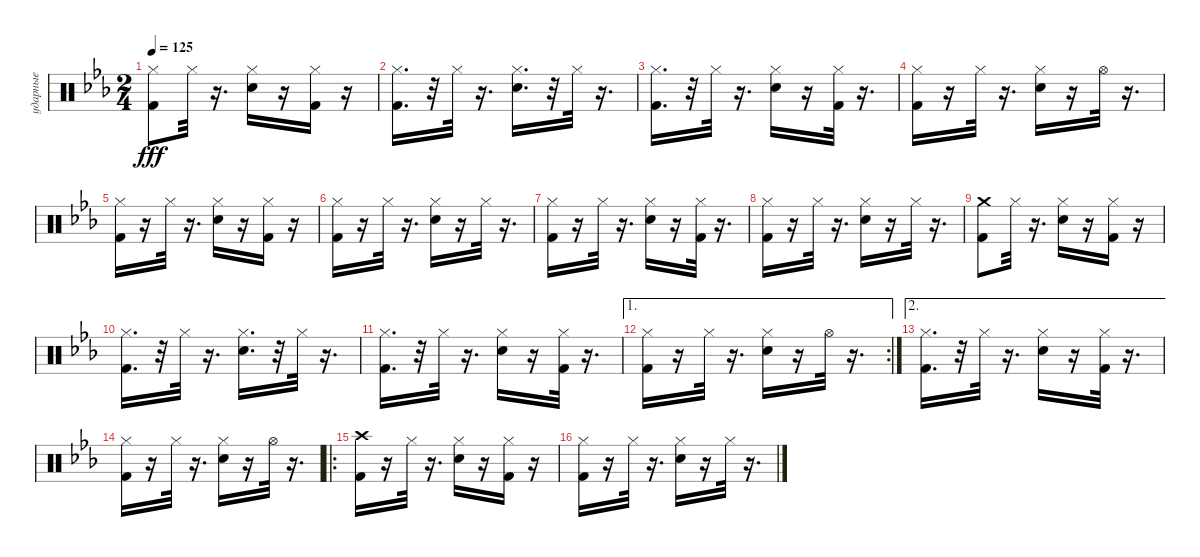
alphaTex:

\track ("ударные" "ударные") {instrument percussion}
\staff {score}
\articulation defaults
\ts (2 4)
\tempo 125
\clef neutral
\ks cminor
("Kick (hit) 2" "Hi-Hat (closed)").8{dy fff} "Hi-Hat (closed)".32 r.16{d} ("Snare (hit) 2" "Hi-Hat (closed)").16 r.16 ("Kick (hit) 2" "Hi-Hat (closed)").16 r.16 |
("Kick (hit) 2" "Hi-Hat (closed)").16{d} r.32 "Hi-Hat (closed)".32 r.16{d} ("Snare (hit) 2" "Hi-Hat (closed)").16{d} r.32 "Hi-Hat (closed)".32 r.16{d} |
("Kick (hit) 2" "Hi-Hat (closed)").16{d} r.32 "Hi-Hat (closed)".32 r.16{d} ("Snare (hit) 2" "Hi-Hat (closed)").16 r.16 ("Kick (hit) 2" "Hi-Hat (closed)").32 r.16{d} |
("Kick (hit) 2" "Hi-Hat (closed)").16 r.16 "Hi-Hat (closed)".32 r.16{d} ("Snare (hit) 2" "Hi-Hat (closed)").16 r.16 "Hi-Hat (open)".32 r.16{d} |
("Kick (hit) 2" "Hi-Hat (closed)").16 r.16 "Hi-Hat (closed)".32 r.16{d} ("Snare (hit) 2" "Hi-Hat (closed)").16 r.16 ("Kick (hit) 2" "Hi-Hat (closed)").16 r.16 |
("Kick (hit) 2" "Hi-Hat (closed)").16 r.16 "Hi-Hat (closed)".32 r.16{d} ("Snare (hit) 2" "Hi-Hat (closed)").16 r.16 "Hi-Hat (closed)".32 r.16{d} |
("Kick (hit) 2" "Hi-Hat (closed)").16 r.16 "Hi-Hat (closed)".32 r.16{d} ("Snare (hit) 2" "Hi-Hat (closed)").16 r.16 ("Kick (hit) 2" "Hi-Hat (closed)").32 r.16{d} |
("Kick (hit) 2" "Hi-Hat (closed)").16 r.16 "Hi-Hat (closed)".32 r.16{d} ("Snare (hit) 2" "Hi-Hat (closed)").16 r.16 "Hi-Hat (closed)".32 r.16{d} |
("Kick (hit) 2" "Crash medium (hit)").8 "Hi-Hat (closed)".32 r.16{d} ("Snare (hit) 2" "Hi-Hat (closed)").16 r.16 ("Kick (hit) 2" "Hi-Hat (closed)").16 r.16 |
("Kick (hit) 2" "Hi-Hat (closed)").16{d} r.32 "Hi-Hat (closed)".32 r.16{d} ("Snare (hit) 2" "Hi-Hat (closed)").16{d} r.32 "Hi-Hat (closed)".32 r.16{d} |
("Kick (hit) 2" "Hi-Hat (closed)").16{d} r.32 "Hi-Hat (closed)".32 r.16{d} ("Snare (hit) 2" "Hi-Hat (closed)").16 r.16 ("Kick (hit) 2" "Hi-Hat (closed)").32 r.16{d} |
\ae 1
\rc 2
("Kick (hit) 2" "Hi-Hat (closed)").16 r.16 "Hi-Hat (closed)".32 r.16{d} ("Snare (hit) 2" "Hi-Hat (closed)").16 r.16 "Hi-Hat (open)".32 r.16{d} |
\ae 2
("Kick (hit) 2" "Hi-Hat (closed)").16{d} r.32 "Hi-Hat (closed)".32 r.16{d} ("Snare (hit) 2" "Hi-Hat (closed)").16 r.16 ("Kick (hit) 2" "Hi-Hat (closed)").32 r.16{d} |
("Kick (hit) 2" "Hi-Hat (closed)").16 r.16 "Hi-Hat (closed)".32 r.16{d} ("Snare (hit) 2" "Hi-Hat (closed)").16 r.16 "Hi-Hat (open)".32 r.16{d} |
\ro
("Kick (hit) 2" "Crash high (hit)").16 r.16 "Hi-Hat (closed)".32 r.16{d} ("Snare (hit) 2" "Hi-Hat (closed)").16 r.16 ("Kick (hit) 2" "Hi-Hat (closed)").16 r.16 |
("Kick (hit) 2" "Hi-Hat (closed)").16 r.16 "Hi-Hat (closed)".32 r.16{d} ("Snare (hit) 2" "Hi-Hat (closed)").16 r.16 "Hi-Hat (closed)".32 r.16{d}
